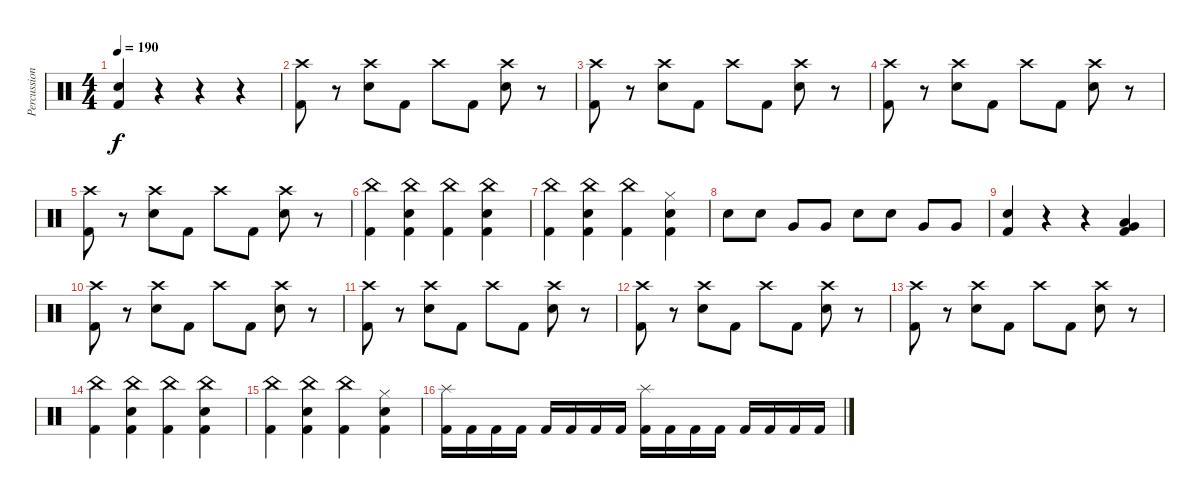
\track ("Percussion" "Percussion") {instrument percussion}
\staff {score}
\articulation defaults
\ts (4 4)
\tempo 190
\clef neutral
\ks c
("Snare (hit) 2" "Kick (hit) 2").4{dy f} r.4 r.4 r.4 |
("Crash high (hit)" "Kick (hit) 2").8 r.8 ("Crash high (hit)" "Snare (hit) 2").8 "Kick (hit) 2".8 "Crash high (hit)".8 "Kick (hit) 2".8 ("Crash high (hit)" "Snare (hit) 2").8 r.8 |
("Crash high (hit)" "Kick (hit) 2").8 r.8 ("Crash high (hit)" "Snare (hit) 2").8 "Kick (hit) 2".8 "Crash high (hit)".8 "Kick (hit) 2".8 ("Crash high (hit)" "Snare (hit) 2").8 r.8 |
("Crash high (hit)" "Kick (hit) 2").8 r.8 ("Crash high (hit)" "Snare (hit) 2").8 "Kick (hit) 2".8 "Crash high (hit)".8 "Kick (hit) 2".8 ("Crash high (hit)" "Snare (hit) 2").8 r.8 |
("Crash high (hit)" "Kick (hit) 2").8 r.8 ("Crash high (hit)" "Snare (hit) 2").8 "Kick (hit) 2".8 "Crash high (hit)".8 "Kick (hit) 2".8 ("Crash high (hit)" "Snare (hit) 2").8 r.8 |
("China (hit)" "Kick (hit) 2").4 ("China (hit)" "Snare (hit) 2" "Kick (hit) 2").4 ("China (hit)" "Kick (hit) 2").4 ("China (hit)" "Snare (hit) 2" "Kick (hit) 2").4 |
("China (hit)" "Kick (hit) 2").4 ("China (hit)" "Snare (hit) 2" "Kick (hit) 2").4 ("China (hit)" "Kick (hit) 2").4 ("Hi-Hat (closed)" "Snare (hit) 2" "Kick (hit) 2").4 |
"Snare (hit) 2".8 "Snare (hit) 2".8 "Very Low Tom (hit)".8 "Very Low Tom (hit)".8 "Snare (hit) 2".8 "Snare (hit) 2".8 "Very Low Tom (hit)".8 "Very Low Tom (hit)".8 |
("Snare (hit) 2" "Kick (hit) 2").4 r.4 r.4 ("Low Tom (hit)" "Very Low Tom (hit)" "Kick (hit) 2").4 |
("Crash high (hit)" "Kick (hit) 2").8 r.8 ("Crash high (hit)" "Snare (hit) 2").8 "Kick (hit) 2".8 "Crash high (hit)".8 "Kick (hit) 2".8 ("Crash high (hit)" "Snare (hit) 2").8 r.8 |
("Crash high (hit)" "Kick (hit) 2").8 r.8 ("Crash high (hit)" "Snare (hit) 2").8 "Kick (hit) 2".8 "Crash high (hit)".8 "Kick (hit) 2".8 ("Crash high (hit)" "Snare (hit) 2").8 r.8 |
("Crash high (hit)" "Kick (hit) 2").8 r.8 ("Crash high (hit)" "Snare (hit) 2").8 "Kick (hit) 2".8 "Crash high (hit)".8 "Kick (hit) 2".8 ("Crash high (hit)" "Snare (hit) 2").8 r.8 |
("Crash high (hit)" "Kick (hit) 2").8 r.8 ("Crash high (hit)" "Snare (hit) 2").8 "Kick (hit) 2".8 "Crash high (hit)".8 "Kick (hit) 2".8 ("Crash high (hit)" "Snare (hit) 2").8 r.8 |
("China (hit)" "Kick (hit) 2").4 ("China (hit)" "Snare (hit) 2" "Kick (hit) 2").4 ("China (hit)" "Kick (hit) 2").4 ("China (hit)" "Snare (hit) 2" "Kick (hit) 2").4 |
("China (hit)" "Kick (hit) 2").4 ("China (hit)" "Snare (hit) 2" "Kick (hit) 2").4 ("China (hit)" "Kick (hit) 2").4 ("Hi-Hat (closed)" "Snare (hit) 2" "Kick (hit) 2").4 |
("Splash (hit)" "Kick (hit) 2").16 "Kick (hit) 2".16 "Kick (hit) 2".16 "Kick (hit) 2".16 "Kick (hit) 2".16 "Kick (hit) 2".16 "Kick (hit) 2".16 "Kick (hit) 2".16 ("Splash (hit)" "Kick (hit) 2").16 "Kick (hit) 2".16 "Kick (hit) 2".16 "Kick (hit) 2".16 "Kick (hit) 2".16 "Kick (hit) 2".16 "Kick (hit) 2".16 "Kick (hit) 2".16
